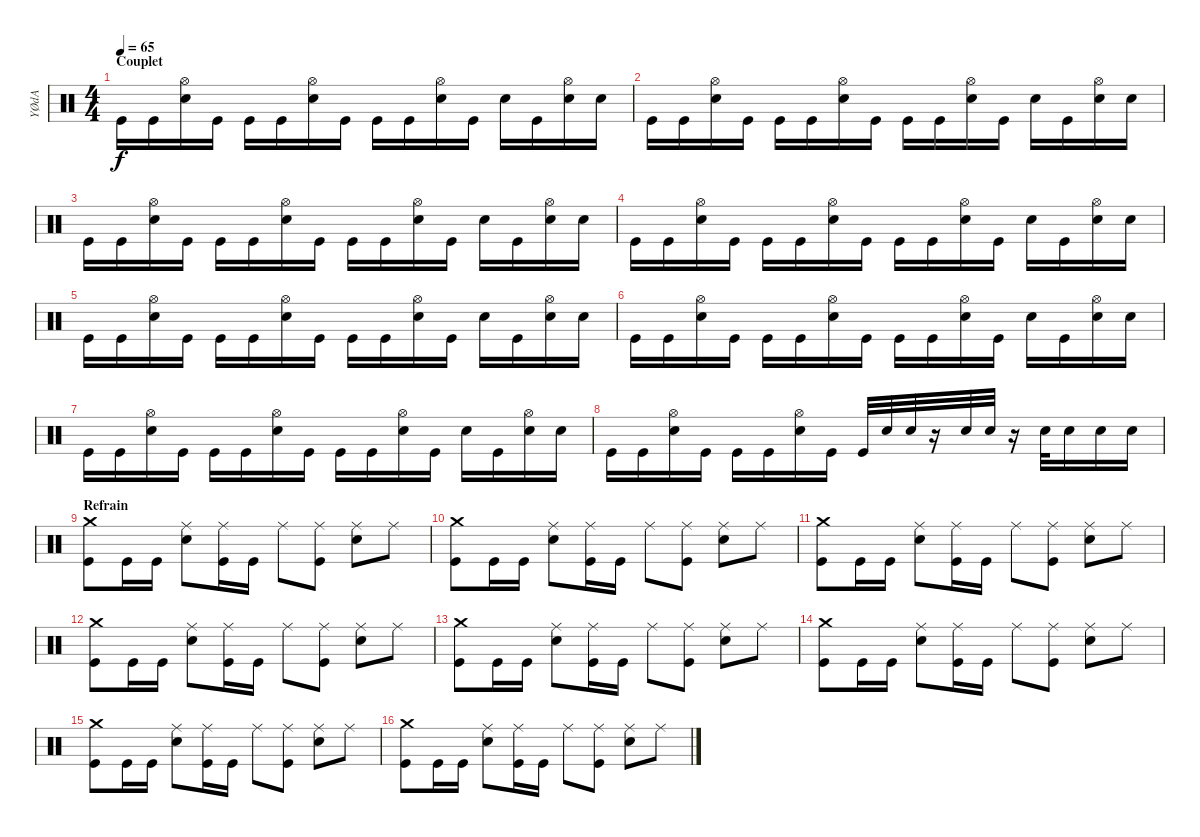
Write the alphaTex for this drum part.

\track ("YØdA" "YØdA") {instrument percussion}
\staff {score}
\articulation defaults
\ts (4 4)
\section ("" "Couplet")
\tempo 65
\clef neutral
\ks c "Kick (hit)".16{dy f} "Kick (hit)".16
("Hi-Hat (open)" "Electric Snare (hit)").16 "Kick (hit)".16 "Kick (hit)".16 "Kick (hit)".16 ("Hi-Hat (open)" "Electric Snare (hit)").16 "Kick (hit)".16 "Kick (hit)".16 "Kick (hit)".16 ("Hi-Hat (open)" "Electric Snare (hit)").16 "Kick (hit)".16 "Electric Snare (hit)".16 "Kick (hit)".16 ("Hi-Hat (open)" "Electric Snare (hit)").16 "Electric Snare (hit)".16 |
"Kick (hit)".16 "Kick (hit)".16 ("Hi-Hat (open)" "Electric Snare (hit)").16 "Kick (hit)".16 "Kick (hit)".16 "Kick (hit)".16 ("Hi-Hat (open)" "Electric Snare (hit)").16 "Kick (hit)".16 "Kick (hit)".16 "Kick (hit)".16 ("Hi-Hat (open)" "Electric Snare (hit)").16 "Kick (hit)".16 "Electric Snare (hit)".16 "Kick (hit)".16 ("Hi-Hat (open)" "Electric Snare (hit)").16 "Electric Snare (hit)".16 |
"Kick (hit)".16 "Kick (hit)".16 ("Hi-Hat (open)" "Electric Snare (hit)").16 "Kick (hit)".16 "Kick (hit)".16 "Kick (hit)".16 ("Hi-Hat (open)" "Electric Snare (hit)").16 "Kick (hit)".16 "Kick (hit)".16 "Kick (hit)".16 ("Hi-Hat (open)" "Electric Snare (hit)").16 "Kick (hit)".16 "Electric Snare (hit)".16 "Kick (hit)".16 ("Hi-Hat (open)" "Electric Snare (hit)").16 "Electric Snare (hit)".16 |
"Kick (hit)".16 "Kick (hit)".16 ("Hi-Hat (open)" "Electric Snare (hit)").16 "Kick (hit)".16 "Kick (hit)".16 "Kick (hit)".16 ("Hi-Hat (open)" "Electric Snare (hit)").16 "Kick (hit)".16 "Kick (hit)".16 "Kick (hit)".16 ("Hi-Hat (open)" "Electric Snare (hit)").16 "Kick (hit)".16 "Electric Snare (hit)".16 "Kick (hit)".16 ("Hi-Hat (open)" "Electric Snare (hit)").16 "Electric Snare (hit)".16 |
"Kick (hit)".16 "Kick (hit)".16 ("Hi-Hat (open)" "Electric Snare (hit)").16 "Kick (hit)".16 "Kick (hit)".16 "Kick (hit)".16 ("Hi-Hat (open)" "Electric Snare (hit)").16 "Kick (hit)".16 "Kick (hit)".16 "Kick (hit)".16 ("Hi-Hat (open)" "Electric Snare (hit)").16 "Kick (hit)".16 "Electric Snare (hit)".16 "Kick (hit)".16 ("Hi-Hat (open)" "Electric Snare (hit)").16 "Electric Snare (hit)".16 |
"Kick (hit)".16 "Kick (hit)".16 ("Hi-Hat (open)" "Electric Snare (hit)").16 "Kick (hit)".16 "Kick (hit)".16 "Kick (hit)".16 ("Hi-Hat (open)" "Electric Snare (hit)").16 "Kick (hit)".16 "Kick (hit)".16 "Kick (hit)".16 ("Hi-Hat (open)" "Electric Snare (hit)").16 "Kick (hit)".16 "Electric Snare (hit)".16 "Kick (hit)".16 ("Hi-Hat (open)" "Electric Snare (hit)").16 "Electric Snare (hit)".16 |
"Kick (hit)".16 "Kick (hit)".16 ("Hi-Hat (open)" "Electric Snare (hit)").16 "Kick (hit)".16 "Kick (hit)".16 "Kick (hit)".16 ("Hi-Hat (open)" "Electric Snare (hit)").16 "Kick (hit)".16 "Kick (hit)".16 "Kick (hit)".16 ("Hi-Hat (open)" "Electric Snare (hit)").16 "Kick (hit)".16 "Electric Snare (hit)".16 "Kick (hit)".16 ("Hi-Hat (open)" "Electric Snare (hit)").16 "Electric Snare (hit)".16 |
"Kick (hit)".16 "Kick (hit)".16 ("Hi-Hat (open)" "Electric Snare (hit)").16 "Kick (hit)".16 "Kick (hit)".16 "Kick (hit)".16 ("Hi-Hat (open)" "Electric Snare (hit)").16 "Kick (hit)".16 "Kick (hit)".32 "Electric Snare (hit)".32 "Electric Snare (hit)".32 r.16 "Electric Snare (hit)".32 "Electric Snare (hit)".32 r.16 "Electric Snare (hit)".32 "Electric Snare (hit)".16 "Electric Snare (hit)".16 "Electric Snare (hit)".16 |
\section ("" "Refrain")
("Crash medium (hit)" "Kick (hit)").8 "Kick (hit)".16 "Kick (hit)".16 ("Ride (middle)" "Electric Snare (hit)").8 ("Ride (middle)" "Kick (hit)").16 "Kick (hit)".16 "Ride (middle)".8 ("Ride (middle)" "Kick (hit)").8 ("Ride (middle)" "Electric Snare (hit)").8 "Ride (middle)".8 |
("Crash medium (hit)" "Kick (hit)").8 "Kick (hit)".16 "Kick (hit)".16 ("Ride (middle)" "Electric Snare (hit)").8 ("Ride (middle)" "Kick (hit)").16 "Kick (hit)".16 "Ride (middle)".8 ("Ride (middle)" "Kick (hit)").8 ("Ride (middle)" "Electric Snare (hit)").8 "Ride (middle)".8 |
("Crash medium (hit)" "Kick (hit)").8 "Kick (hit)".16 "Kick (hit)".16 ("Ride (middle)" "Electric Snare (hit)").8 ("Ride (middle)" "Kick (hit)").16 "Kick (hit)".16 "Ride (middle)".8 ("Ride (middle)" "Kick (hit)").8 ("Ride (middle)" "Electric Snare (hit)").8 "Ride (middle)".8 |
("Crash medium (hit)" "Kick (hit)").8 "Kick (hit)".16 "Kick (hit)".16 ("Ride (middle)" "Electric Snare (hit)").8 ("Ride (middle)" "Kick (hit)").16 "Kick (hit)".16 "Ride (middle)".8 ("Ride (middle)" "Kick (hit)").8 ("Ride (middle)" "Electric Snare (hit)").8 "Ride (middle)".8 |
("Crash medium (hit)" "Kick (hit)").8 "Kick (hit)".16 "Kick (hit)".16 ("Ride (middle)" "Electric Snare (hit)").8 ("Ride (middle)" "Kick (hit)").16 "Kick (hit)".16 "Ride (middle)".8 ("Ride (middle)" "Kick (hit)").8 ("Ride (middle)" "Electric Snare (hit)").8 "Ride (middle)".8 |
("Crash medium (hit)" "Kick (hit)").8 "Kick (hit)".16 "Kick (hit)".16 ("Ride (middle)" "Electric Snare (hit)").8 ("Ride (middle)" "Kick (hit)").16 "Kick (hit)".16 "Ride (middle)".8 ("Ride (middle)" "Kick (hit)").8 ("Ride (middle)" "Electric Snare (hit)").8 "Ride (middle)".8 |
("Crash medium (hit)" "Kick (hit)").8 "Kick (hit)".16 "Kick (hit)".16 ("Ride (middle)" "Electric Snare (hit)").8 ("Ride (middle)" "Kick (hit)").16 "Kick (hit)".16 "Ride (middle)".8 ("Ride (middle)" "Kick (hit)").8 ("Ride (middle)" "Electric Snare (hit)").8 "Ride (middle)".8 |
("Crash medium (hit)" "Kick (hit)").8 "Kick (hit)".16 "Kick (hit)".16 ("Ride (middle)" "Electric Snare (hit)").8 ("Ride (middle)" "Kick (hit)").16 "Kick (hit)".16 "Ride (middle)".8 ("Ride (middle)" "Kick (hit)").8 ("Ride (middle)" "Electric Snare (hit)").8 "Ride (middle)".8
